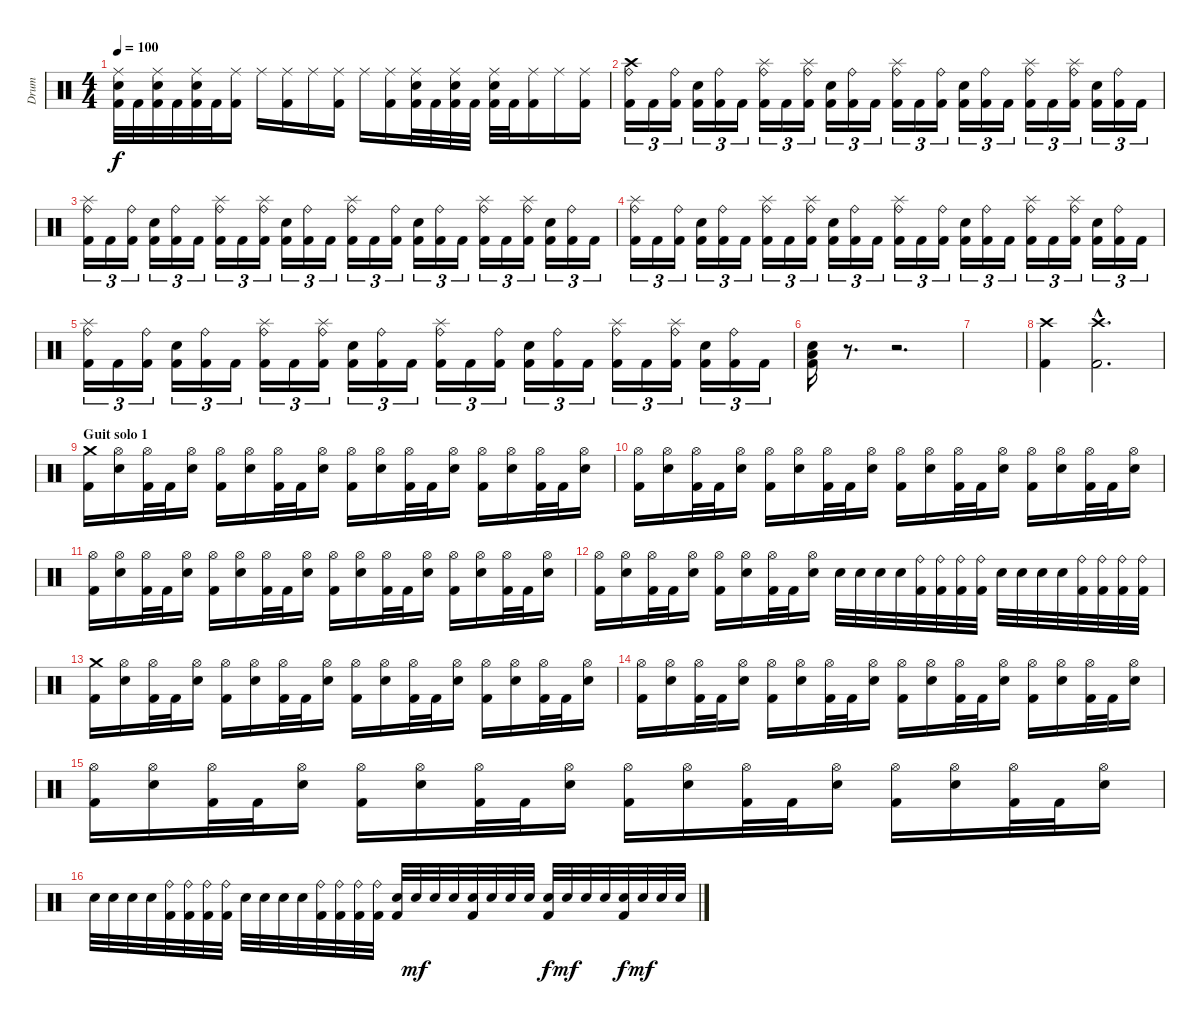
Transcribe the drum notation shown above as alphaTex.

\track ("Drum" "Drum") {instrument percussion}
\staff {score}
\articulation defaults
\ts (4 4)
\tempo 100
\clef neutral
\ks c
("Ride (middle)" "Snare (hit) 2" "Kick (hit) 2").32{dy f} "Kick (hit) 2".32 ("Ride (middle)" "Snare (hit) 2" "Kick (hit) 2").32 "Kick (hit) 2".32 ("Ride (middle)" "Snare (hit) 2" "Kick (hit) 2").32 "Kick (hit) 2".32 ("Ride (middle)" "Kick (hit) 2").16 "Ride (middle)".16 ("Ride (middle)" "Kick (hit) 2").16 "Ride (middle)".16 ("Ride (middle)" "Kick (hit) 2").16 "Ride (middle)".16 ("Ride (middle)" "Kick (hit) 2").16 ("Ride (middle)" "Snare (hit) 2" "Kick (hit) 2").32 "Kick (hit) 2".32 ("Ride (middle)" "Snare (hit) 2" "Kick (hit) 2").32 "Kick (hit) 2".32 ("Ride (middle)" "Snare (hit) 2" "Kick (hit) 2").32 "Kick (hit) 2".32 ("Ride (middle)" "Kick (hit) 2").16 "Ride (middle)".16 ("Ride (middle)" "Kick (hit) 2").16 |
("Crash high (hit)" "Ride (bell)" "Kick (hit) 2").16{tu (3 2)} "Kick (hit) 2".16{tu (3 2)} ("Ride (bell)" "Kick (hit) 2").16{tu (3 2)} ("Snare (hit) 2" "Kick (hit) 2").16{tu (3 2)} ("Ride (bell)" "Kick (hit) 2").16{tu (3 2)} "Kick (hit) 2".16{tu (3 2)} ("Splash (hit)" "Ride (bell)" "Kick (hit) 2").16{tu (3 2)} "Kick (hit) 2".16{tu (3 2)} ("Splash (hit)" "Ride (bell)" "Kick (hit) 2").16{tu (3 2)} ("Snare (hit) 2" "Kick (hit) 2").16{tu (3 2)} ("Ride (bell)" "Kick (hit) 2").16{tu (3 2)} "Kick (hit) 2".16{tu (3 2)} ("Splash (hit)" "Ride (bell)" "Kick (hit) 2").16{tu (3 2)} "Kick (hit) 2".16{tu (3 2)} ("Ride (bell)" "Kick (hit) 2").16{tu (3 2)} ("Snare (hit) 2" "Kick (hit) 2").16{tu (3 2)} ("Ride (bell)" "Kick (hit) 2").16{tu (3 2)} "Kick (hit) 2".16{tu (3 2)} ("Splash (hit)" "Ride (bell)" "Kick (hit) 2").16{tu (3 2)} "Kick (hit) 2".16{tu (3 2)} ("Splash (hit)" "Ride (bell)" "Kick (hit) 2").16{tu (3 2)} ("Snare (hit) 2" "Kick (hit) 2").16{tu (3 2)} ("Ride (bell)" "Kick (hit) 2").16{tu (3 2)} "Kick (hit) 2".16{tu (3 2)} |
("Splash (hit)" "Ride (bell)" "Kick (hit) 2").16{tu (3 2)} "Kick (hit) 2".16{tu (3 2)} ("Ride (bell)" "Kick (hit) 2").16{tu (3 2)} ("Snare (hit) 2" "Kick (hit) 2").16{tu (3 2)} ("Ride (bell)" "Kick (hit) 2").16{tu (3 2)} "Kick (hit) 2".16{tu (3 2)} ("Splash (hit)" "Ride (bell)" "Kick (hit) 2").16{tu (3 2)} "Kick (hit) 2".16{tu (3 2)} ("Splash (hit)" "Ride (bell)" "Kick (hit) 2").16{tu (3 2)} ("Snare (hit) 2" "Kick (hit) 2").16{tu (3 2)} ("Ride (bell)" "Kick (hit) 2").16{tu (3 2)} "Kick (hit) 2".16{tu (3 2)} ("Splash (hit)" "Ride (bell)" "Kick (hit) 2").16{tu (3 2)} "Kick (hit) 2".16{tu (3 2)} ("Ride (bell)" "Kick (hit) 2").16{tu (3 2)} ("Snare (hit) 2" "Kick (hit) 2").16{tu (3 2)} ("Ride (bell)" "Kick (hit) 2").16{tu (3 2)} "Kick (hit) 2".16{tu (3 2)} ("Splash (hit)" "Ride (bell)" "Kick (hit) 2").16{tu (3 2)} "Kick (hit) 2".16{tu (3 2)} ("Splash (hit)" "Ride (bell)" "Kick (hit) 2").16{tu (3 2)} ("Snare (hit) 2" "Kick (hit) 2").16{tu (3 2)} ("Ride (bell)" "Kick (hit) 2").16{tu (3 2)} "Kick (hit) 2".16{tu (3 2)} |
("Splash (hit)" "Ride (bell)" "Kick (hit) 2").16{tu (3 2)} "Kick (hit) 2".16{tu (3 2)} ("Ride (bell)" "Kick (hit) 2").16{tu (3 2)} ("Snare (hit) 2" "Kick (hit) 2").16{tu (3 2)} ("Ride (bell)" "Kick (hit) 2").16{tu (3 2)} "Kick (hit) 2".16{tu (3 2)} ("Splash (hit)" "Ride (bell)" "Kick (hit) 2").16{tu (3 2)} "Kick (hit) 2".16{tu (3 2)} ("Splash (hit)" "Ride (bell)" "Kick (hit) 2").16{tu (3 2)} ("Snare (hit) 2" "Kick (hit) 2").16{tu (3 2)} ("Ride (bell)" "Kick (hit) 2").16{tu (3 2)} "Kick (hit) 2".16{tu (3 2)} ("Splash (hit)" "Ride (bell)" "Kick (hit) 2").16{tu (3 2)} "Kick (hit) 2".16{tu (3 2)} ("Ride (bell)" "Kick (hit) 2").16{tu (3 2)} ("Snare (hit) 2" "Kick (hit) 2").16{tu (3 2)} ("Ride (bell)" "Kick (hit) 2").16{tu (3 2)} "Kick (hit) 2".16{tu (3 2)} ("Splash (hit)" "Ride (bell)" "Kick (hit) 2").16{tu (3 2)} "Kick (hit) 2".16{tu (3 2)} ("Splash (hit)" "Ride (bell)" "Kick (hit) 2").16{tu (3 2)} ("Snare (hit) 2" "Kick (hit) 2").16{tu (3 2)} ("Ride (bell)" "Kick (hit) 2").16{tu (3 2)} "Kick (hit) 2".16{tu (3 2)} |
("Splash (hit)" "Ride (bell)" "Kick (hit) 2").16{tu (3 2)} "Kick (hit) 2".16{tu (3 2)} ("Ride (bell)" "Kick (hit) 2").16{tu (3 2)} ("Snare (hit) 2" "Kick (hit) 2").16{tu (3 2)} ("Ride (bell)" "Kick (hit) 2").16{tu (3 2)} "Kick (hit) 2".16{tu (3 2)} ("Splash (hit)" "Ride (bell)" "Kick (hit) 2").16{tu (3 2)} "Kick (hit) 2".16{tu (3 2)} ("Splash (hit)" "Ride (bell)" "Kick (hit) 2").16{tu (3 2)} ("Snare (hit) 2" "Kick (hit) 2").16{tu (3 2)} ("Ride (bell)" "Kick (hit) 2").16{tu (3 2)} "Kick (hit) 2".16{tu (3 2)} ("Splash (hit)" "Ride (bell)" "Kick (hit) 2").16{tu (3 2)} "Kick (hit) 2".16{tu (3 2)} ("Ride (bell)" "Kick (hit) 2").16{tu (3 2)} ("Snare (hit) 2" "Kick (hit) 2").16{tu (3 2)} ("Ride (bell)" "Kick (hit) 2").16{tu (3 2)} "Kick (hit) 2".16{tu (3 2)} ("Splash (hit)" "Ride (bell)" "Kick (hit) 2").16{tu (3 2)} "Kick (hit) 2".16{tu (3 2)} ("Splash (hit)" "Ride (bell)" "Kick (hit) 2").16{tu (3 2)} ("Snare (hit) 2" "Kick (hit) 2").16{tu (3 2)} ("Ride (bell)" "Kick (hit) 2").16{tu (3 2)} "Kick (hit) 2".16{tu (3 2)} |
("Low Floor Tom (hit)" "Snare (hit) 2" "Kick (hit) 2").16 r.8{d} r.2{d} |
|
("Crash high (hit)" "Kick (hit) 2").4 ("Crash high (hit)"{hac} "Kick (hit) 2"{hac}).2{d} |
\section ("" "Guit solo 1")
("Crash medium (hit)" "Kick (hit) 2").16 ("Hi-Hat (open)" "Snare (hit) 2").16 ("Hi-Hat (open)" "Kick (hit) 2").32 "Kick (hit) 2".32 ("Hi-Hat (open)" "Snare (hit) 2").16 ("Hi-Hat (open)" "Kick (hit) 2").16 ("Hi-Hat (open)" "Snare (hit) 2").16 ("Hi-Hat (open)" "Kick (hit) 2").32 "Kick (hit) 2".32 ("Hi-Hat (open)" "Snare (hit) 2").16 ("Hi-Hat (open)" "Kick (hit) 2").16 ("Hi-Hat (open)" "Snare (hit) 2").16 ("Hi-Hat (open)" "Kick (hit) 2").32 "Kick (hit) 2".32 ("Hi-Hat (open)" "Snare (hit) 2").16 ("Hi-Hat (open)" "Kick (hit) 2").16 ("Hi-Hat (open)" "Snare (hit) 2").16 ("Hi-Hat (open)" "Kick (hit) 2").32 "Kick (hit) 2".32 ("Hi-Hat (open)" "Snare (hit) 2").16 |
("Hi-Hat (open)" "Kick (hit) 2").16 ("Hi-Hat (open)" "Snare (hit) 2").16 ("Hi-Hat (open)" "Kick (hit) 2").32 "Kick (hit) 2".32 ("Hi-Hat (open)" "Snare (hit) 2").16 ("Hi-Hat (open)" "Kick (hit) 2").16 ("Hi-Hat (open)" "Snare (hit) 2").16 ("Hi-Hat (open)" "Kick (hit) 2").32 "Kick (hit) 2".32 ("Hi-Hat (open)" "Snare (hit) 2").16 ("Hi-Hat (open)" "Kick (hit) 2").16 ("Hi-Hat (open)" "Snare (hit) 2").16 ("Hi-Hat (open)" "Kick (hit) 2").32 "Kick (hit) 2".32 ("Hi-Hat (open)" "Snare (hit) 2").16 ("Hi-Hat (open)" "Kick (hit) 2").16 ("Hi-Hat (open)" "Snare (hit) 2").16 ("Hi-Hat (open)" "Kick (hit) 2").32 "Kick (hit) 2".32 ("Hi-Hat (open)" "Snare (hit) 2").16 |
("Hi-Hat (open)" "Kick (hit) 2").16 ("Hi-Hat (open)" "Snare (hit) 2").16 ("Hi-Hat (open)" "Kick (hit) 2").32 "Kick (hit) 2".32 ("Hi-Hat (open)" "Snare (hit) 2").16 ("Hi-Hat (open)" "Kick (hit) 2").16 ("Hi-Hat (open)" "Snare (hit) 2").16 ("Hi-Hat (open)" "Kick (hit) 2").32 "Kick (hit) 2".32 ("Hi-Hat (open)" "Snare (hit) 2").16 ("Hi-Hat (open)" "Kick (hit) 2").16 ("Hi-Hat (open)" "Snare (hit) 2").16 ("Hi-Hat (open)" "Kick (hit) 2").32 "Kick (hit) 2".32 ("Hi-Hat (open)" "Snare (hit) 2").16 ("Hi-Hat (open)" "Kick (hit) 2").16 ("Hi-Hat (open)" "Snare (hit) 2").16 ("Hi-Hat (open)" "Kick (hit) 2").32 "Kick (hit) 2".32 ("Hi-Hat (open)" "Snare (hit) 2").16 |
("Hi-Hat (open)" "Kick (hit) 2").16 ("Hi-Hat (open)" "Snare (hit) 2").16 ("Hi-Hat (open)" "Kick (hit) 2").32 "Kick (hit) 2".32 ("Hi-Hat (open)" "Snare (hit) 2").16 ("Hi-Hat (open)" "Kick (hit) 2").16 ("Hi-Hat (open)" "Snare (hit) 2").16 ("Hi-Hat (open)" "Kick (hit) 2").32 "Kick (hit) 2".32 ("Hi-Hat (open)" "Snare (hit) 2").16 "Snare (hit) 2".32 "Snare (hit) 2".32 "Snare (hit) 2".32 "Snare (hit) 2".32 ("Ride (bell)" "Kick (hit) 2").32 ("Ride (bell)" "Kick (hit) 2").32 ("Ride (bell)" "Kick (hit) 2").32 ("Ride (bell)" "Kick (hit) 2").32 "Snare (hit) 2".32 "Snare (hit) 2".32 "Snare (hit) 2".32 "Snare (hit) 2".32 ("Ride (bell)" "Kick (hit) 2").32 ("Ride (bell)" "Kick (hit) 2").32 ("Ride (bell)" "Kick (hit) 2").32 ("Ride (bell)" "Kick (hit) 2").32 |
("Crash medium (hit)" "Kick (hit) 2").16 ("Hi-Hat (open)" "Snare (hit) 2").16 ("Hi-Hat (open)" "Kick (hit) 2").32 "Kick (hit) 2".32 ("Hi-Hat (open)" "Snare (hit) 2").16 ("Hi-Hat (open)" "Kick (hit) 2").16 ("Hi-Hat (open)" "Snare (hit) 2").16 ("Hi-Hat (open)" "Kick (hit) 2").32 "Kick (hit) 2".32 ("Hi-Hat (open)" "Snare (hit) 2").16 ("Hi-Hat (open)" "Kick (hit) 2").16 ("Hi-Hat (open)" "Snare (hit) 2").16 ("Hi-Hat (open)" "Kick (hit) 2").32 "Kick (hit) 2".32 ("Hi-Hat (open)" "Snare (hit) 2").16 ("Hi-Hat (open)" "Kick (hit) 2").16 ("Hi-Hat (open)" "Snare (hit) 2").16 ("Hi-Hat (open)" "Kick (hit) 2").32 "Kick (hit) 2".32 ("Hi-Hat (open)" "Snare (hit) 2").16 |
("Hi-Hat (open)" "Kick (hit) 2").16 ("Hi-Hat (open)" "Snare (hit) 2").16 ("Hi-Hat (open)" "Kick (hit) 2").32 "Kick (hit) 2".32 ("Hi-Hat (open)" "Snare (hit) 2").16 ("Hi-Hat (open)" "Kick (hit) 2").16 ("Hi-Hat (open)" "Snare (hit) 2").16 ("Hi-Hat (open)" "Kick (hit) 2").32 "Kick (hit) 2".32 ("Hi-Hat (open)" "Snare (hit) 2").16 ("Hi-Hat (open)" "Kick (hit) 2").16 ("Hi-Hat (open)" "Snare (hit) 2").16 ("Hi-Hat (open)" "Kick (hit) 2").32 "Kick (hit) 2".32 ("Hi-Hat (open)" "Snare (hit) 2").16 ("Hi-Hat (open)" "Kick (hit) 2").16 ("Hi-Hat (open)" "Snare (hit) 2").16 ("Hi-Hat (open)" "Kick (hit) 2").32 "Kick (hit) 2".32 ("Hi-Hat (open)" "Snare (hit) 2").16 |
("Hi-Hat (open)" "Kick (hit) 2").16 ("Hi-Hat (open)" "Snare (hit) 2").16 ("Hi-Hat (open)" "Kick (hit) 2").32 "Kick (hit) 2".32 ("Hi-Hat (open)" "Snare (hit) 2").16 ("Hi-Hat (open)" "Kick (hit) 2").16 ("Hi-Hat (open)" "Snare (hit) 2").16 ("Hi-Hat (open)" "Kick (hit) 2").32 "Kick (hit) 2".32 ("Hi-Hat (open)" "Snare (hit) 2").16 ("Hi-Hat (open)" "Kick (hit) 2").16 ("Hi-Hat (open)" "Snare (hit) 2").16 ("Hi-Hat (open)" "Kick (hit) 2").32 "Kick (hit) 2".32 ("Hi-Hat (open)" "Snare (hit) 2").16 ("Hi-Hat (open)" "Kick (hit) 2").16 ("Hi-Hat (open)" "Snare (hit) 2").16 ("Hi-Hat (open)" "Kick (hit) 2").32 "Kick (hit) 2".32 ("Hi-Hat (open)" "Snare (hit) 2").16 |
"Snare (hit) 2".32 "Snare (hit) 2".32 "Snare (hit) 2".32 "Snare (hit) 2".32 ("Ride (bell)" "Kick (hit) 2").32 ("Ride (bell)" "Kick (hit) 2").32 ("Ride (bell)" "Kick (hit) 2").32 ("Ride (bell)" "Kick (hit) 2").32 "Snare (hit) 2".32 "Snare (hit) 2".32 "Snare (hit) 2".32 "Snare (hit) 2".32 ("Ride (bell)" "Kick (hit) 2").32 ("Ride (bell)" "Kick (hit) 2").32 ("Ride (bell)" "Kick (hit) 2").32 ("Ride (bell)" "Kick (hit) 2").32 ("Snare (hit) 2" "Kick (hit) 2").32 "Snare (hit) 2".32{dy mf} "Snare (hit) 2".32 "Snare (hit) 2".32 ("Snare (hit) 2" "Kick (hit) 2").32 "Snare (hit) 2".32 "Snare (hit) 2".32 "Snare (hit) 2".32 ("Snare (hit) 2" "Kick (hit) 2").32{dy f} "Snare (hit) 2".32{dy mf} "Snare (hit) 2".32 "Snare (hit) 2".32 ("Snare (hit) 2" "Kick (hit) 2").32{dy f} "Snare (hit) 2".32{dy mf} "Snare (hit) 2".32 "Snare (hit) 2".32
